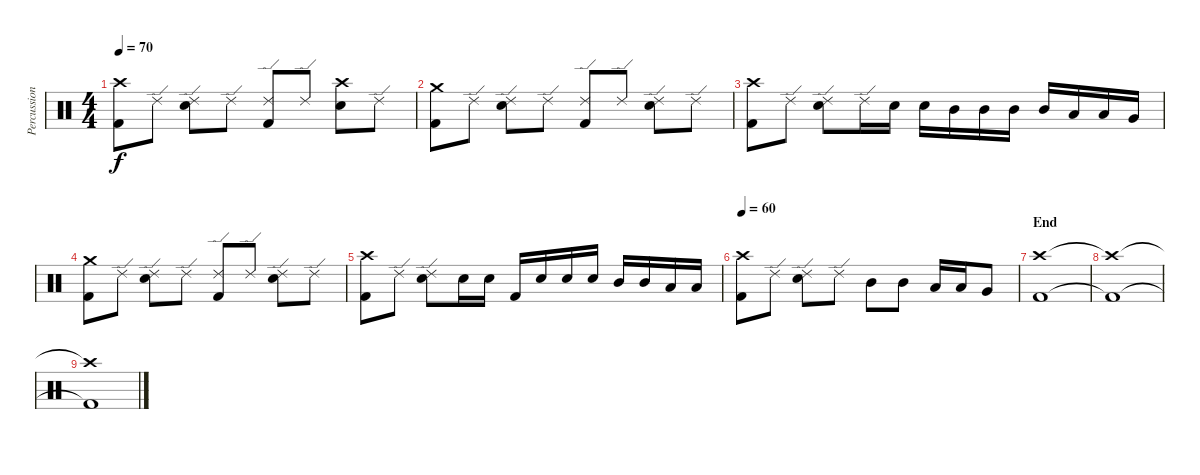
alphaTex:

\track ("Percussion" "Percussion") {instrument percussion}
\staff {score}
\articulation defaults
\ts (4 4)
\tempo 70
\clef neutral
\ks c
("Crash high (hit)" "Kick (hit) 2").8{dy f} "Ride (edge) 2".8 ("Ride (edge) 2" "Snare (hit) 2").8 "Ride (edge) 2".8 ("Ride (edge) 2" "Kick (hit) 2").8 "Ride (edge) 2".8 ("Crash high (hit)" "Snare (hit) 2").8 "Ride (edge) 2".8 |
("Crash medium (hit)" "Kick (hit) 2").8 "Ride (edge) 2".8 ("Ride (edge) 2" "Snare (hit) 2").8 "Ride (edge) 2".8 ("Ride (edge) 2" "Kick (hit) 2").8 "Ride (edge) 2".8 ("Ride (edge) 2" "Snare (hit) 2").8 "Ride (edge) 2".8 |
("Crash high (hit)" "Kick (hit) 2").8 "Ride (edge) 2".8 ("Ride (edge) 2" "Snare (hit) 2").8 "Ride (edge) 2".16 "Snare (hit) 2".16 "Snare (hit) 2".16 "Mid Tom (hit)".16 "Mid Tom (hit)".16 "Mid Tom (hit)".16 "Mid Tom (hit)".16 "Low Tom (hit)".16 "Low Tom (hit)".16 "Very Low Tom (hit)".16 |
("Crash medium (hit)" "Kick (hit) 2").8 "Ride (edge) 2".8 ("Ride (edge) 2" "Snare (hit) 2").8 "Ride (edge) 2".8 ("Ride (edge) 2" "Kick (hit) 2").8 "Ride (edge) 2".8 ("Ride (edge) 2" "Snare (hit) 2").8 "Ride (edge) 2".8 |
("Crash high (hit)" "Kick (hit) 2").8 "Ride (edge) 2".8 ("Ride (edge) 2" "Snare (hit) 2").8 "Snare (hit) 2".16 "Snare (hit) 2".16 "Kick (hit) 2".16 "Snare (hit) 2".16 "Snare (hit) 2".16 "Snare (hit) 2".16 "Mid Tom (hit)".16 "Mid Tom (hit)".16 "Low Tom (hit)".16 "Low Tom (hit)".16 |
\tempo 60
("Crash high (hit)" "Kick (hit) 2").8 "Ride (edge) 2".8 ("Ride (edge) 2" "Snare (hit) 2").8 "Ride (edge) 2".8 "Mid Tom (hit)".8 "Mid Tom (hit)".8 "Low Tom (hit)".16 "Low Tom (hit)".16 "Very Low Tom (hit)".8 |
\section ("" "End")
("Crash high (hit)" "Kick (hit) 2").1 |
("Crash high (hit)"{t} "Kick (hit) 2"{t}).1 |
("Crash high (hit)"{t} "Kick (hit) 2"{t}).1
